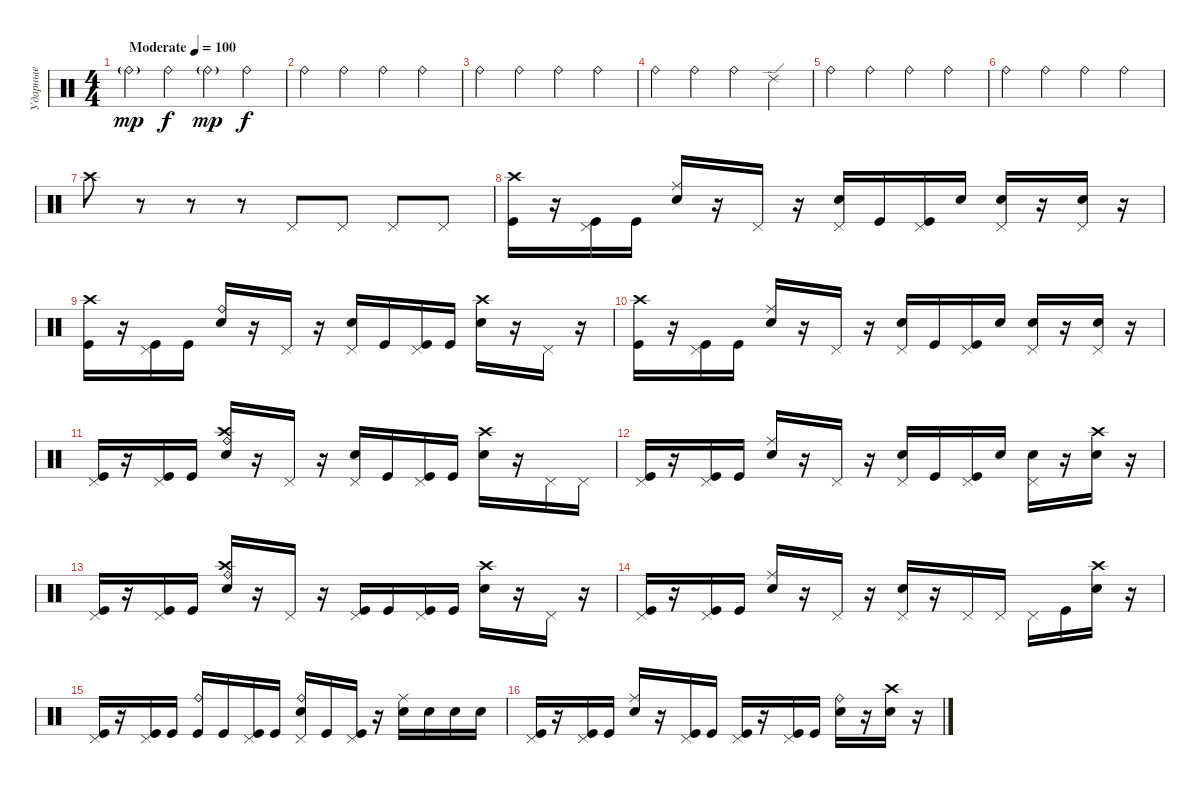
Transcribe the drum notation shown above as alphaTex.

\track ("Ударные" "Ударные") {instrument percussion}
\staff {score}
\articulation defaults
\ts (4 4)
\tempo (100 "Moderate")
\clef neutral
\ks c "Ride (bell)"{g}.4{dy mp} "Ride (bell)".4{dy f} "Ride (bell)"{g}.4{dy mp} "Ride (bell)".4{dy f}
|
"Ride (bell)".4 "Ride (bell)".4 "Ride (bell)".4 "Ride (bell)".4 |
"Ride (bell)".4 "Ride (bell)".4 "Ride (bell)".4 "Ride (bell)".4 |
"Ride (bell)".4 "Ride (bell)".4 "Ride (bell)".4 "Ride (edge) 2".4 |
"Ride (bell)".4 "Ride (bell)".4 "Ride (bell)".4 "Ride (bell)".4 |
"Ride (bell)".4 "Ride (bell)".4 "Ride (bell)".4 "Ride (bell)".4 |
"Crash high (hit)".8 r.8 r.8 r.8 "Pedal Hi-Hat (hit)".8 "Pedal Hi-Hat (hit)".8 "Pedal Hi-Hat (hit)".8 "Pedal Hi-Hat (hit)".8 |
("Crash high (hit)" "Kick (hit)").16 r.16 ("Pedal Hi-Hat (hit)" "Kick (hit)").16 "Kick (hit)".16 ("Snare (hit) 2" "Ride (middle)").16 r.16 "Pedal Hi-Hat (hit)".16 r.16 ("Pedal Hi-Hat (hit)" "Electric Snare (hit)").16 "Kick (hit)".16 ("Pedal Hi-Hat (hit)" "Kick (hit)").16 "Electric Snare (hit)".16 ("Pedal Hi-Hat (hit)" "Electric Snare (hit)").16 r.16 ("Pedal Hi-Hat (hit)" "Snare (hit) 2").16 r.16 |
("Crash high (hit)" "Kick (hit)").16 r.16 ("Pedal Hi-Hat (hit)" "Kick (hit)").16 "Kick (hit)".16 ("Snare (hit) 2" "Ride (bell)").16 r.16 "Pedal Hi-Hat (hit)".16 r.16 ("Pedal Hi-Hat (hit)" "Electric Snare (hit)").16 "Kick (hit)".16 ("Pedal Hi-Hat (hit)" "Kick (hit)").16 "Kick (hit)".16 ("Snare (hit) 2" "Crash high (hit)").16 r.16 "Pedal Hi-Hat (hit)".16 r.16 |
("Crash high (hit)" "Kick (hit)").16 r.16 ("Pedal Hi-Hat (hit)" "Kick (hit)").16 "Kick (hit)".16 ("Snare (hit) 2" "Ride (middle)").16 r.16 "Pedal Hi-Hat (hit)".16 r.16 ("Pedal Hi-Hat (hit)" "Electric Snare (hit)").16 "Kick (hit)".16 ("Pedal Hi-Hat (hit)" "Kick (hit)").16 "Electric Snare (hit)".16 ("Pedal Hi-Hat (hit)" "Electric Snare (hit)").16 r.16 ("Pedal Hi-Hat (hit)" "Snare (hit) 2").16 r.16 |
("Pedal Hi-Hat (hit)" "Kick (hit)").16 r.16 ("Pedal Hi-Hat (hit)" "Kick (hit)").16 "Kick (hit)".16 ("Crash high (hit)" "Snare (hit) 2" "Ride (bell)").16 r.16 "Pedal Hi-Hat (hit)".16 r.16 ("Pedal Hi-Hat (hit)" "Electric Snare (hit)").16 "Kick (hit)".16 ("Pedal Hi-Hat (hit)" "Kick (hit)").16 "Kick (hit)".16 ("Snare (hit) 2" "Crash high (hit)").16 r.16 "Pedal Hi-Hat (hit)".16 "Pedal Hi-Hat (hit)".16 |
("Pedal Hi-Hat (hit)" "Kick (hit)").16 r.16 ("Pedal Hi-Hat (hit)" "Kick (hit)").16 "Kick (hit)".16 ("Snare (hit) 2" "Ride (middle)").16 r.16 "Pedal Hi-Hat (hit)".16 r.16 ("Pedal Hi-Hat (hit)" "Electric Snare (hit)").16 "Kick (hit)".16 ("Pedal Hi-Hat (hit)" "Kick (hit)").16 "Electric Snare (hit)".16 ("Pedal Hi-Hat (hit)" "Electric Snare (hit)").16 r.16 ("Crash high (hit)" "Snare (hit) 2").16 r.16 |
("Pedal Hi-Hat (hit)" "Kick (hit)").16 r.16 ("Pedal Hi-Hat (hit)" "Kick (hit)").16 "Kick (hit)".16 ("Crash high (hit)" "Snare (hit) 2" "Ride (bell)").16 r.16 "Pedal Hi-Hat (hit)".16 r.16 ("Pedal Hi-Hat (hit)" "Kick (hit)").16 "Kick (hit)".16 ("Pedal Hi-Hat (hit)" "Kick (hit)").16 "Kick (hit)".16 ("Snare (hit) 2" "Crash high (hit)").16 r.16 "Pedal Hi-Hat (hit)".16 r.16 |
("Pedal Hi-Hat (hit)" "Kick (hit)").16 r.16 ("Pedal Hi-Hat (hit)" "Kick (hit)").16 "Kick (hit)".16 ("Snare (hit) 2" "Ride (middle)").16 r.16 "Pedal Hi-Hat (hit)".16 r.16 ("Pedal Hi-Hat (hit)" "Electric Snare (hit)").16 r.16 "Pedal Hi-Hat (hit)".16 "Pedal Hi-Hat (hit)".16 "Pedal Hi-Hat (hit)".16 "Kick (hit)".16 ("Snare (hit) 2" "Crash high (hit)").16 r.16 |
("Pedal Hi-Hat (hit)" "Kick (hit)").16 r.16 ("Pedal Hi-Hat (hit)" "Kick (hit)").16 "Kick (hit)".16 ("Kick (hit)" "Ride (bell)").16 "Kick (hit)".16 ("Pedal Hi-Hat (hit)" "Kick (hit)").16 "Kick (hit)".16 ("Pedal Hi-Hat (hit)" "Electric Snare (hit)" "Ride (bell)").16 "Kick (hit)".16 ("Pedal Hi-Hat (hit)" "Kick (hit)").16 r.16 ("Snare (hit) 2" "Ride (middle)").16 "Snare (hit) 2".16 "Snare (hit) 2".16 "Snare (hit) 2".16 |
("Kick (hit)" "Pedal Hi-Hat (hit)").16 r.16 ("Kick (hit)" "Pedal Hi-Hat (hit)").16 "Kick (hit)".16 ("Electric Snare (hit)" "Ride (middle)").16 r.16 ("Kick (hit)" "Pedal Hi-Hat (hit)").16 "Kick (hit)".16 ("Kick (hit)" "Pedal Hi-Hat (hit)").16 r.16 ("Kick (hit)" "Pedal Hi-Hat (hit)").16 "Kick (hit)".16 ("Electric Snare (hit)" "Ride (bell)").16 r.16 ("Snare (hit) 2" "Crash high (hit)").16 r.16
